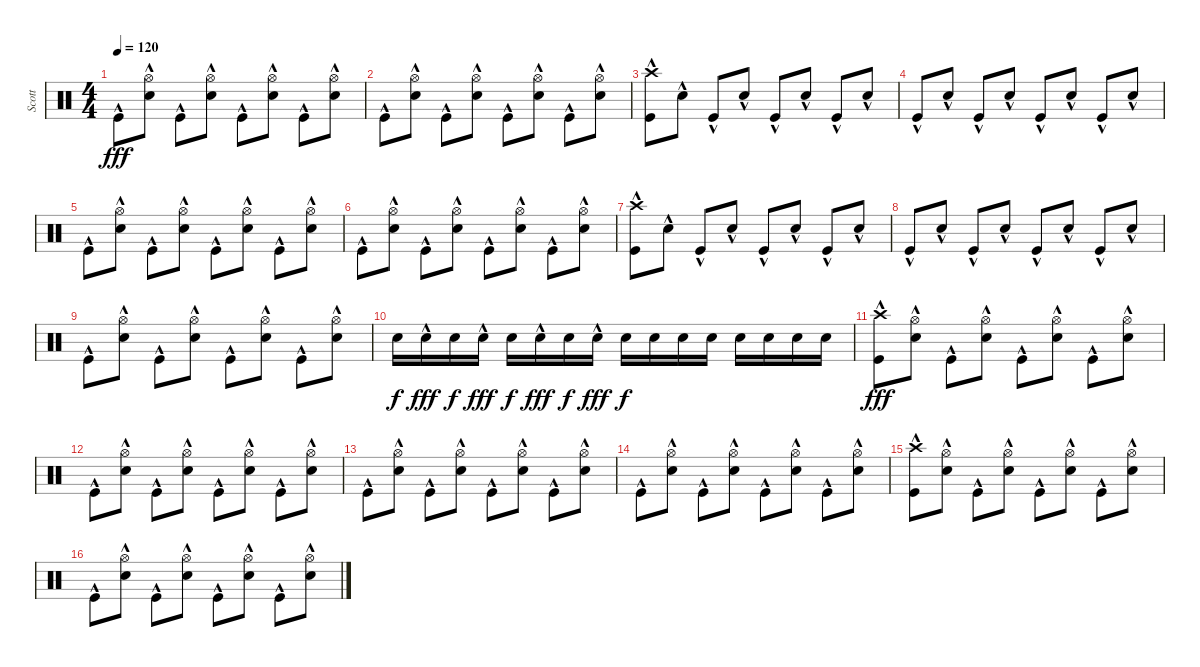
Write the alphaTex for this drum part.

\track ("Scott" "Scott") {instrument percussion}
\staff {score}
\articulation defaults
\ts (4 4)
\tempo 120
\clef neutral
\ks c "Kick (hit)"{hac}.8{dy fff}
("Hi-Hat (open)"{hac} "Electric Snare (hit)"{hac}).8 "Kick (hit)"{hac}.8 ("Hi-Hat (open)"{hac} "Electric Snare (hit)"{hac}).8 "Kick (hit)"{hac}.8 ("Hi-Hat (open)"{hac} "Electric Snare (hit)"{hac}).8 "Kick (hit)"{hac}.8 ("Hi-Hat (open)"{hac} "Electric Snare (hit)"{hac}).8 |
"Kick (hit)"{hac}.8 ("Hi-Hat (open)"{hac} "Electric Snare (hit)"{hac}).8 "Kick (hit)"{hac}.8 ("Hi-Hat (open)"{hac} "Electric Snare (hit)"{hac}).8 "Kick (hit)"{hac}.8 ("Hi-Hat (open)"{hac} "Electric Snare (hit)"{hac}).8 "Kick (hit)"{hac}.8 ("Hi-Hat (open)"{hac} "Electric Snare (hit)"{hac}).8 |
("Crash high (hit)"{hac} "Kick (hit)"{hac}).8 "Electric Snare (hit)"{hac}.8 "Kick (hit)"{hac}.8 "Electric Snare (hit)"{hac}.8 "Kick (hit)"{hac}.8 "Electric Snare (hit)"{hac}.8 "Kick (hit)"{hac}.8 "Electric Snare (hit)"{hac}.8 |
"Kick (hit)"{hac}.8 "Electric Snare (hit)"{hac}.8 "Kick (hit)"{hac}.8 "Electric Snare (hit)"{hac}.8 "Kick (hit)"{hac}.8 "Electric Snare (hit)"{hac}.8 "Kick (hit)"{hac}.8 "Electric Snare (hit)"{hac}.8 |
"Kick (hit)"{hac}.8 ("Hi-Hat (open)"{hac} "Electric Snare (hit)"{hac}).8 "Kick (hit)"{hac}.8 ("Hi-Hat (open)"{hac} "Electric Snare (hit)"{hac}).8 "Kick (hit)"{hac}.8 ("Hi-Hat (open)"{hac} "Electric Snare (hit)"{hac}).8 "Kick (hit)"{hac}.8 ("Hi-Hat (open)"{hac} "Electric Snare (hit)"{hac}).8 |
"Kick (hit)"{hac}.8 ("Hi-Hat (open)"{hac} "Electric Snare (hit)"{hac}).8 "Kick (hit)"{hac}.8 ("Hi-Hat (open)"{hac} "Electric Snare (hit)"{hac}).8 "Kick (hit)"{hac}.8 ("Hi-Hat (open)"{hac} "Electric Snare (hit)"{hac}).8 "Kick (hit)"{hac}.8 ("Hi-Hat (open)"{hac} "Electric Snare (hit)"{hac}).8 |
("Crash high (hit)"{hac} "Kick (hit)"{hac}).8 "Electric Snare (hit)"{hac}.8 "Kick (hit)"{hac}.8 "Electric Snare (hit)"{hac}.8 "Kick (hit)"{hac}.8 "Electric Snare (hit)"{hac}.8 "Kick (hit)"{hac}.8 "Electric Snare (hit)"{hac}.8 |
"Kick (hit)"{hac}.8 "Electric Snare (hit)"{hac}.8 "Kick (hit)"{hac}.8 "Electric Snare (hit)"{hac}.8 "Kick (hit)"{hac}.8 "Electric Snare (hit)"{hac}.8 "Kick (hit)"{hac}.8 "Electric Snare (hit)"{hac}.8 |
"Kick (hit)"{hac}.8 ("Hi-Hat (open)"{hac} "Electric Snare (hit)"{hac}).8 "Kick (hit)"{hac}.8 ("Hi-Hat (open)"{hac} "Electric Snare (hit)"{hac}).8 "Kick (hit)"{hac}.8 ("Hi-Hat (open)"{hac} "Electric Snare (hit)"{hac}).8 "Kick (hit)"{hac}.8 ("Hi-Hat (open)"{hac} "Electric Snare (hit)"{hac}).8 |
"Electric Snare (hit)".16{dy f} "Electric Snare (hit)"{hac}.16{dy fff} "Electric Snare (hit)".16{dy f} "Electric Snare (hit)"{hac}.16{dy fff} "Electric Snare (hit)".16{dy f} "Electric Snare (hit)"{hac}.16{dy fff} "Electric Snare (hit)".16{dy f} "Electric Snare (hit)"{hac}.16{dy fff} "Electric Snare (hit)".16{dy f} "Electric Snare (hit)".16 "Electric Snare (hit)".16 "Electric Snare (hit)".16 "Electric Snare (hit)".16 "Electric Snare (hit)".16 "Electric Snare (hit)".16 "Electric Snare (hit)".16 |
("Crash high (hit)"{hac} "Kick (hit)"{hac}).8{dy fff} ("Hi-Hat (open)"{hac} "Electric Snare (hit)"{hac}).8 "Kick (hit)"{hac}.8 ("Hi-Hat (open)"{hac} "Electric Snare (hit)"{hac}).8 "Kick (hit)"{hac}.8 ("Hi-Hat (open)"{hac} "Electric Snare (hit)"{hac}).8 "Kick (hit)"{hac}.8 ("Hi-Hat (open)"{hac} "Electric Snare (hit)"{hac}).8 |
"Kick (hit)"{hac}.8 ("Hi-Hat (open)"{hac} "Electric Snare (hit)"{hac}).8 "Kick (hit)"{hac}.8 ("Hi-Hat (open)"{hac} "Electric Snare (hit)"{hac}).8 "Kick (hit)"{hac}.8 ("Hi-Hat (open)"{hac} "Electric Snare (hit)"{hac}).8 "Kick (hit)"{hac}.8 ("Hi-Hat (open)"{hac} "Electric Snare (hit)"{hac}).8 |
"Kick (hit)"{hac}.8 ("Hi-Hat (open)"{hac} "Electric Snare (hit)"{hac}).8 "Kick (hit)"{hac}.8 ("Hi-Hat (open)"{hac} "Electric Snare (hit)"{hac}).8 "Kick (hit)"{hac}.8 ("Hi-Hat (open)"{hac} "Electric Snare (hit)"{hac}).8 "Kick (hit)"{hac}.8 ("Hi-Hat (open)"{hac} "Electric Snare (hit)"{hac}).8 |
"Kick (hit)"{hac}.8 ("Hi-Hat (open)"{hac} "Electric Snare (hit)"{hac}).8 "Kick (hit)"{hac}.8 ("Hi-Hat (open)"{hac} "Electric Snare (hit)"{hac}).8 "Kick (hit)"{hac}.8 ("Hi-Hat (open)"{hac} "Electric Snare (hit)"{hac}).8 "Kick (hit)"{hac}.8 ("Hi-Hat (open)"{hac} "Electric Snare (hit)"{hac}).8 |
("Crash high (hit)"{hac} "Kick (hit)"{hac}).8 ("Hi-Hat (open)"{hac} "Electric Snare (hit)"{hac}).8 "Kick (hit)"{hac}.8 ("Hi-Hat (open)"{hac} "Electric Snare (hit)"{hac}).8 "Kick (hit)"{hac}.8 ("Hi-Hat (open)"{hac} "Electric Snare (hit)"{hac}).8 "Kick (hit)"{hac}.8 ("Hi-Hat (open)"{hac} "Electric Snare (hit)"{hac}).8 |
"Kick (hit)"{hac}.8 ("Hi-Hat (open)"{hac} "Electric Snare (hit)"{hac}).8 "Kick (hit)"{hac}.8 ("Hi-Hat (open)"{hac} "Electric Snare (hit)"{hac}).8 "Kick (hit)"{hac}.8 ("Hi-Hat (open)"{hac} "Electric Snare (hit)"{hac}).8 "Kick (hit)"{hac}.8 ("Hi-Hat (open)"{hac} "Electric Snare (hit)"{hac}).8
